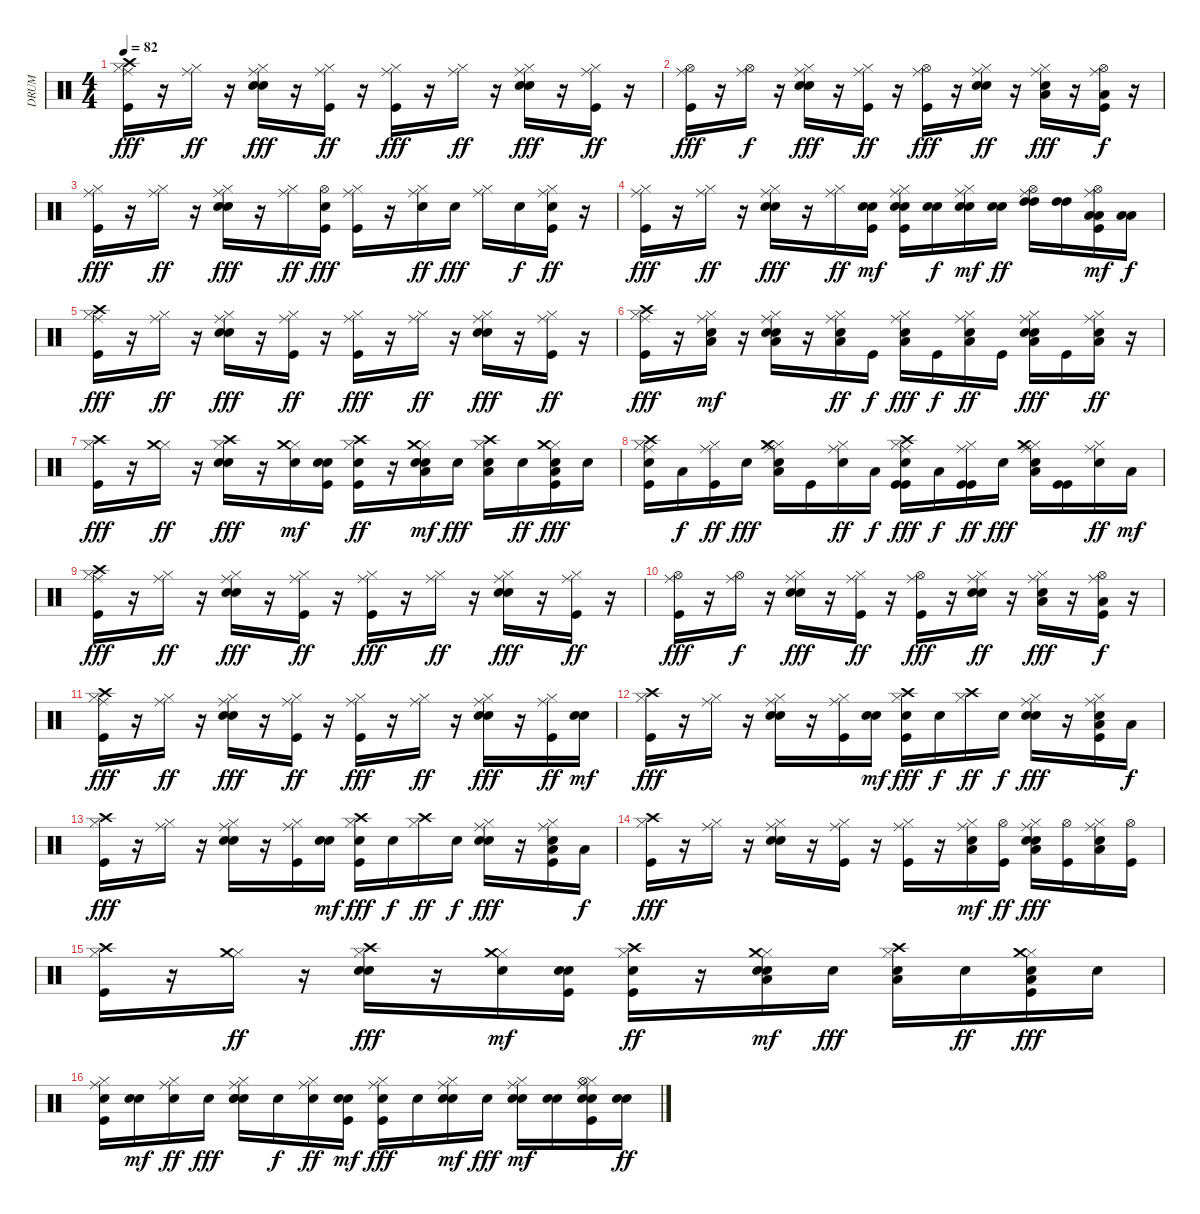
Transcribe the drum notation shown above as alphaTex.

\track ("DRUM" "DRUM") {instrument percussion}
\staff {score}
\articulation defaults
\ts (4 4)
\tempo 82
\clef neutral
\ks c
("Kick (hit)" "Hi-Hat (closed)" "Ride (middle)" "Crash high (hit)").16{dy fff} r.16 ("Hi-Hat (closed)" "Ride (middle)").16{dy ff} r.16 ("Snare (hit) 2" "Hi-Hat (closed)" "Ride (middle)" "Hand Clap (hit)").16{dy fff} r.16 ("Kick (hit)" "Hi-Hat (closed)" "Ride (middle)").16{dy ff} r.16 ("Kick (hit)" "Hi-Hat (closed)" "Ride (middle)").16{dy fff} r.16 ("Hi-Hat (closed)" "Ride (middle)").16{dy ff} r.16 ("Snare (hit) 2" "Hi-Hat (closed)" "Ride (middle)" "Hand Clap (hit)").16{dy fff} r.16 ("Kick (hit)" "Hi-Hat (closed)" "Ride (middle)").16{dy ff} r.16 |
("Kick (hit)" "Hi-Hat (open)" "Ride (middle)").16{dy fff} r.16 ("Hi-Hat (open)" "Ride (middle)").16{dy f} r.16 ("Snare (hit) 2" "Hi-Hat (closed)" "Ride (middle)" "Hand Clap (hit)").16{dy fff} r.16 ("Kick (hit)" "Hi-Hat (closed)" "Ride (middle)").16{dy ff} r.16 ("Kick (hit)" "Hi-Hat (open)" "Ride (middle)").16{dy fff} r.16 ("Snare (hit) 2" "Hi-Hat (closed)" "Ride (middle)" "Snare (hit) 2").16{dy ff} r.16 ("Hi-Hat (closed)" "Ride (middle)" "Low Tom (hit)" "Hand Clap (hit)").16{dy fff} r.16 ("Kick (hit)" "Hi-Hat (open)" "Ride (middle)" "Low Floor Tom (hit)").16{dy f} r.16 |
("Kick (hit)" "Hi-Hat (closed)" "Ride (middle)").16{dy fff} r.16 ("Hi-Hat (closed)" "Ride (middle)").16{dy ff} r.16 ("Snare (hit) 2" "Hi-Hat (closed)" "Ride (middle)" "Hand Clap (hit)").16{dy fff} r.16 ("Hi-Hat (closed)" "Ride (middle)").16{dy ff} ("Kick (hit)" "Snare (hit) 2" "Hi-Hat (open)").16{dy fff} ("Kick (hit)" "Hi-Hat (closed)" "Ride (middle)").16 r.16 ("Snare (hit) 2" "Hi-Hat (closed)" "Ride (middle)").16{dy ff} "Snare (hit) 2".16{dy fff} ("Hi-Hat (closed)" "Ride (middle)").16 "Snare (hit) 2".16{dy f} ("Kick (hit)" "Snare (hit) 2" "Hi-Hat (closed)" "Ride (middle)").16{dy ff} r.16 |
("Kick (hit)" "Hi-Hat (closed)" "Ride (middle)").16{dy fff} r.16 ("Hi-Hat (closed)" "Ride (middle)").16{dy ff} r.16 ("Snare (hit) 2" "Hi-Hat (closed)" "Ride (middle)" "Hand Clap (hit)").16{dy fff} r.16 ("Hi-Hat (closed)" "Ride (middle)").16{dy ff} ("Kick (hit)" "Snare (hit) 2" "Snare (hit) 2").16{dy mf} ("Kick (hit)" "Snare (hit) 2" "Hi-Hat (closed)" "Ride (middle)" "Snare (hit) 2").16 ("Snare (hit) 2" "Snare (hit) 2").16{dy f} ("Snare (hit) 2" "Hi-Hat (closed)" "Ride (middle)" "Snare (hit) 2").16{dy mf} ("Snare (hit) 2" "Snare (hit) 2").16{dy ff} ("Hi-Hat (open)" "Ride (middle)" "High Tom (hit)" "High Tom (hit)").16 ("High Tom (hit)" "High Tom (hit)").16 ("Kick (hit)" "Hi-Hat (open)" "Ride (middle)" "Low Tom (hit)" "Low Tom (hit)").16{dy mf} ("Low Tom (hit)" "Low Floor Tom (hit)").16{dy f} |
("Kick (hit)" "Hi-Hat (closed)" "Ride (middle)" "Crash high (hit)").16{dy fff} r.16 ("Hi-Hat (closed)" "Ride (middle)").16{dy ff} r.16 ("Snare (hit) 2" "Hi-Hat (closed)" "Ride (middle)" "Hand Clap (hit)").16{dy fff} r.16 ("Kick (hit)" "Hi-Hat (closed)" "Ride (middle)").16{dy ff} r.16 ("Kick (hit)" "Hi-Hat (closed)" "Ride (middle)").16{dy fff} r.16 ("Hi-Hat (closed)" "Ride (middle)").16{dy ff} r.16 ("Snare (hit) 2" "Hi-Hat (closed)" "Ride (middle)" "Hand Clap (hit)").16{dy fff} r.16 ("Kick (hit)" "Hi-Hat (closed)" "Ride (middle)").16{dy ff} r.16 |
("Kick (hit)" "Hi-Hat (closed)" "Ride (middle)" "Crash high (hit)").16{dy fff} r.16 ("Snare (hit) 2" "Hi-Hat (closed)" "Ride (middle)" "Low Floor Tom (hit)").16{dy mf} r.16 ("Snare (hit) 2" "Hi-Hat (closed)" "Ride (middle)" "Low Floor Tom (hit)" "Hand Clap (hit)").16 r.16 ("Snare (hit) 2" "Hi-Hat (closed)" "Ride (middle)" "Low Floor Tom (hit)").16{dy ff} "Kick (hit)".16{dy f} ("Snare (hit) 2" "Hi-Hat (closed)" "Ride (middle)" "Low Floor Tom (hit)").16{dy fff} "Kick (hit)".16{dy f} ("Snare (hit) 2" "Hi-Hat (closed)" "Ride (middle)" "Low Floor Tom (hit)").16{dy ff} "Kick (hit)".16 ("Snare (hit) 2" "Hi-Hat (closed)" "Ride (middle)" "Low Floor Tom (hit)" "Hand Clap (hit)").16{dy fff} "Kick (hit)".16 ("Snare (hit) 2" "Hi-Hat (closed)" "Ride (middle)" "Low Floor Tom (hit)").16{dy ff} r.16 |
("Kick (hit)" "Hi-Hat (closed)" "Crash high (hit)").16{dy fff} r.16 ("Hi-Hat (closed)" "Crash medium (hit)").16{dy ff} r.16 ("Snare (hit) 2" "Hi-Hat (closed)" "Crash high (hit)" "Hand Clap (hit)").16{dy fff} r.16 ("Hi-Hat (closed)" "Crash medium (hit)" "Snare (hit) 2").16{dy mf} ("Kick (hit)" "Snare (hit) 2" "Snare (hit) 2").16 ("Kick (hit)" "Snare (hit) 2" "Hi-Hat (closed)" "Crash high (hit)").16{dy ff} r.16 ("Snare (hit) 2" "Hi-Hat (closed)" "Crash medium (hit)" "Low Floor Tom (hit)" "Snare (hit) 2").16{dy mf} "Snare (hit) 2".16{dy fff} ("Snare (hit) 2" "Hi-Hat (closed)" "Crash high (hit)" "Low Floor Tom (hit)").16 "Snare (hit) 2".16{dy ff} ("Kick (hit)" "Snare (hit) 2" "Hi-Hat (closed)" "Crash medium (hit)" "Low Floor Tom (hit)").16{dy fff} "Snare (hit) 2".16 |
("Kick (hit)" "Snare (hit) 2" "Hi-Hat (closed)" "Ride (middle)" "Crash high (hit)").16 "Low Floor Tom (hit)".16{dy f} ("Kick (hit)" "Hi-Hat (closed)" "Ride (middle)").16{dy ff} "Snare (hit) 2".16{dy fff} ("Hi-Hat (closed)" "Ride (middle)" "Crash medium (hit)" "Low Floor Tom (hit)" "Hand Clap (hit)").16 "Kick (hit)".16 ("Snare (hit) 2" "Hi-Hat (closed)" "Ride (middle)").16{dy ff} "Low Floor Tom (hit)".16{dy f} ("Kick (hit)" "Snare (hit) 2" "Hi-Hat (closed)" "Ride (middle)" "Crash high (hit)" "Kick (hit)").16{dy fff} "Low Floor Tom (hit)".16{dy f} ("Kick (hit)" "Hi-Hat (closed)" "Ride (middle)" "Kick (hit)").16{dy ff} "Snare (hit) 2".16{dy fff} ("Hi-Hat (closed)" "Ride (middle)" "Crash medium (hit)" "Low Floor Tom (hit)" "Hand Clap (hit)").16 ("Kick (hit)" "Kick (hit)").16 ("Snare (hit) 2" "Hi-Hat (closed)" "Ride (middle)").16{dy ff} "Low Floor Tom (hit)".16{dy mf} |
("Kick (hit)" "Hi-Hat (closed)" "Ride (middle)" "Crash high (hit)").16{dy fff} r.16 ("Hi-Hat (closed)" "Ride (middle)").16{dy ff} r.16 ("Snare (hit) 2" "Hi-Hat (closed)" "Ride (middle)" "Hand Clap (hit)").16{dy fff} r.16 ("Kick (hit)" "Hi-Hat (closed)" "Ride (middle)").16{dy ff} r.16 ("Kick (hit)" "Hi-Hat (closed)" "Ride (middle)").16{dy fff} r.16 ("Hi-Hat (closed)" "Ride (middle)").16{dy ff} r.16 ("Snare (hit) 2" "Hi-Hat (closed)" "Ride (middle)" "Hand Clap (hit)").16{dy fff} r.16 ("Kick (hit)" "Hi-Hat (closed)" "Ride (middle)").16{dy ff} r.16 |
("Kick (hit)" "Hi-Hat (open)" "Ride (middle)").16{dy fff} r.16 ("Hi-Hat (open)" "Ride (middle)").16{dy f} r.16 ("Snare (hit) 2" "Hi-Hat (closed)" "Ride (middle)" "Hand Clap (hit)").16{dy fff} r.16 ("Kick (hit)" "Hi-Hat (closed)" "Ride (middle)").16{dy ff} r.16 ("Kick (hit)" "Hi-Hat (open)" "Ride (middle)").16{dy fff} r.16 ("Snare (hit) 2" "Hi-Hat (closed)" "Ride (middle)" "Snare (hit) 2").16{dy ff} r.16 ("Hi-Hat (closed)" "Ride (middle)" "Low Tom (hit)" "Hand Clap (hit)").16{dy fff} r.16 ("Kick (hit)" "Hi-Hat (open)" "Ride (middle)" "Low Floor Tom (hit)").16{dy f} r.16 |
("Kick (hit)" "Hi-Hat (closed)" "Ride (middle)" "Crash high (hit)").16{dy fff} r.16 ("Hi-Hat (closed)" "Ride (middle)").16{dy ff} r.16 ("Snare (hit) 2" "Hi-Hat (closed)" "Ride (middle)" "Hand Clap (hit)").16{dy fff} r.16 ("Kick (hit)" "Hi-Hat (closed)" "Ride (middle)").16{dy ff} r.16 ("Kick (hit)" "Hi-Hat (closed)" "Ride (middle)").16{dy fff} r.16 ("Hi-Hat (closed)" "Ride (middle)").16{dy ff} r.16 ("Snare (hit) 2" "Hi-Hat (closed)" "Ride (middle)" "Hand Clap (hit)").16{dy fff} r.16 ("Kick (hit)" "Hi-Hat (closed)" "Ride (middle)").16{dy ff} ("Snare (hit) 2" "Snare (hit) 2").16{dy mf} |
("Kick (hit)" "Hi-Hat (closed)" "Crash high (hit)").16{dy fff} r.16 ("Hi-Hat (closed)" "Ride (middle)").16 r.16 ("Snare (hit) 2" "Hi-Hat (closed)" "Ride (middle)" "Hand Clap (hit)").16 r.16 ("Kick (hit)" "Hi-Hat (closed)" "Ride (middle)").16 ("Snare (hit) 2" "Snare (hit) 2").16{dy mf} ("Kick (hit)" "Snare (hit) 2" "Hi-Hat (closed)" "Crash high (hit)").16{dy fff} "Snare (hit) 2".16{dy f} ("Hi-Hat (closed)" "Crash high (hit)").16{dy ff} "Snare (hit) 2".16{dy f} ("Snare (hit) 2" "Hi-Hat (closed)" "Ride (middle)" "Hand Clap (hit)").16{dy fff} r.16 ("Snare (hit) 2" "Kick (hit)" "Hi-Hat (closed)" "Ride (middle)" "Low Tom (hit)").16 "Low Floor Tom (hit)".16{dy f} |
("Kick (hit)" "Hi-Hat (closed)" "Crash high (hit)").16{dy fff} r.16 ("Hi-Hat (closed)" "Ride (middle)").16 r.16 ("Snare (hit) 2" "Hi-Hat (closed)" "Ride (middle)" "Hand Clap (hit)").16 r.16 ("Kick (hit)" "Hi-Hat (closed)" "Ride (middle)").16 ("Snare (hit) 2" "Snare (hit) 2").16{dy mf} ("Kick (hit)" "Snare (hit) 2" "Hi-Hat (closed)" "Crash high (hit)").16{dy fff} "Snare (hit) 2".16{dy f} ("Hi-Hat (closed)" "Crash high (hit)").16{dy ff} "Snare (hit) 2".16{dy f} ("Snare (hit) 2" "Hi-Hat (closed)" "Ride (middle)" "Hand Clap (hit)").16{dy fff} r.16 ("Snare (hit) 2" "Kick (hit)" "Hi-Hat (closed)" "Ride (middle)" "Low Tom (hit)").16 "Low Floor Tom (hit)".16{dy f} |
("Kick (hit)" "Hi-Hat (closed)" "Crash high (hit)").16{dy fff} r.16 ("Hi-Hat (closed)" "Ride (middle)").16 r.16 ("Snare (hit) 2" "Hi-Hat (closed)" "Ride (middle)" "Hand Clap (hit)").16 r.16 ("Kick (hit)" "Hi-Hat (closed)" "Ride (middle)").16 r.16 ("Kick (hit)" "Hi-Hat (closed)" "Ride (middle)").16 r.16 ("Snare (hit) 2" "Hi-Hat (closed)" "Ride (middle)" "Low Floor Tom (hit)").16{dy mf} ("Kick (hit)" "Hi-Hat (open)").16{dy ff} ("Snare (hit) 2" "Hi-Hat (closed)" "Ride (middle)" "Low Floor Tom (hit)" "Hand Clap (hit)").16{dy fff} ("Kick (hit)" "Hi-Hat (open)").16 ("Snare (hit) 2" "Hi-Hat (closed)" "Ride (middle)" "Low Floor Tom (hit)").16 ("Kick (hit)" "Hi-Hat (open)").16 |
("Kick (hit)" "Hi-Hat (closed)" "Crash high (hit)").16 r.16 ("Hi-Hat (closed)" "Crash medium (hit)").16{dy ff} r.16 ("Snare (hit) 2" "Hi-Hat (closed)" "Crash high (hit)" "Hand Clap (hit)").16{dy fff} r.16 ("Hi-Hat (closed)" "Crash medium (hit)" "Snare (hit) 2").16{dy mf} ("Kick (hit)" "Snare (hit) 2" "Snare (hit) 2").16 ("Kick (hit)" "Snare (hit) 2" "Hi-Hat (closed)" "Crash high (hit)").16{dy ff} r.16 ("Snare (hit) 2" "Hi-Hat (closed)" "Crash medium (hit)" "Low Floor Tom (hit)" "Snare (hit) 2").16{dy mf} "Snare (hit) 2".16{dy fff} ("Snare (hit) 2" "Hi-Hat (closed)" "Crash high (hit)" "Low Floor Tom (hit)").16 "Snare (hit) 2".16{dy ff} ("Kick (hit)" "Snare (hit) 2" "Hi-Hat (closed)" "Crash medium (hit)" "Low Floor Tom (hit)").16{dy fff} "Snare (hit) 2".16 |
("Kick (hit)" "Snare (hit) 2" "Hi-Hat (closed)" "Ride (middle)").16 ("Snare (hit) 2" "Snare (hit) 2").16{dy mf} ("Snare (hit) 2" "Hi-Hat (closed)" "Ride (middle)").16{dy ff} "Snare (hit) 2".16{dy fff} ("Snare (hit) 2" "Hi-Hat (closed)" "Ride (middle)" "Hand Clap (hit)" "Snare (hit) 2").16 "Snare (hit) 2".16{dy f} ("Snare (hit) 2" "Hi-Hat (closed)" "Ride (middle)").16{dy ff} ("Kick (hit)" "Snare (hit) 2" "Snare (hit) 2").16{dy mf} ("Kick (hit)" "Snare (hit) 2" "Hi-Hat (closed)" "Ride (middle)").16{dy fff} "Snare (hit) 2".16 ("Snare (hit) 2" "Hi-Hat (closed)" "Ride (middle)" "Snare (hit) 2").16{dy mf} "Snare (hit) 2".16{dy fff} ("Snare (hit) 2" "Hi-Hat (closed)" "Ride (middle)" "Snare (hit) 2").16{dy mf} ("Snare (hit) 2" "Snare (hit) 2").16 ("Kick (hit)" "Snare (hit) 2" "Hi-Hat (closed)" "Hi-Hat (open)" "Ride (middle)" "Snare (hit) 2").16 ("Snare (hit) 2" "Snare (hit) 2").16{dy ff}
